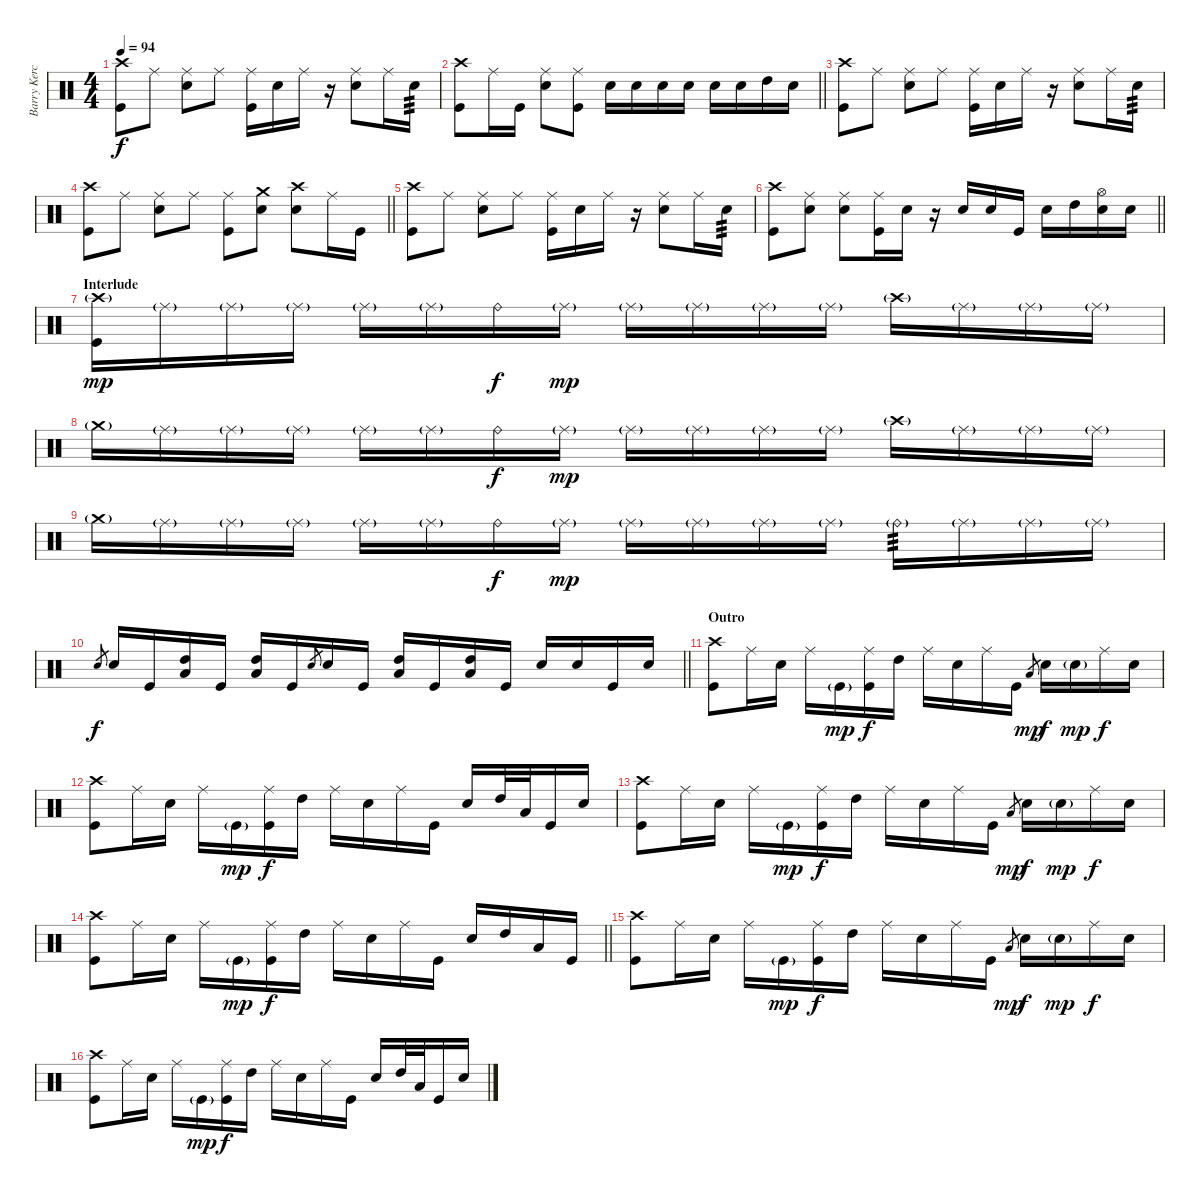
\track ("Barry Kerch" "Barry Kerc") {instrument percussion}
\staff {score}
\articulation defaults
\ts (4 4)
\tempo 94
\clef neutral
\ks c
("Crash high (hit)" "Kick (hit)").8{dy f} "Ride (middle)".8 ("Ride (middle)" "Snare (hit) 2").8 "Ride (middle)".8 ("Ride (middle)" "Kick (hit)").16 "Snare (hit) 2".16 "Ride (middle)".16 r.16 ("Ride (middle)" "Snare (hit) 2").8 "Ride (middle)".16 "Snare (hit) 2".16{tp 3} |
\barLineRight lightlight
("Crash high (hit)" "Kick (hit)").8 "Ride (middle)".16 "Kick (hit)".16 ("Ride (middle)" "Snare (hit) 2").8 ("Ride (middle)" "Kick (hit)").8 "Snare (hit) 2".16 "Snare (hit) 2".16 "Snare (hit) 2".16 "Snare (hit) 2".16 "Snare (hit) 2".16 "Snare (hit) 2".16 "High Tom (hit)".16 "Snare (hit) 2".16 |
("Crash high (hit)" "Kick (hit)").8 "Ride (middle)".8 ("Ride (middle)" "Snare (hit) 2").8 "Ride (middle)".8 ("Ride (middle)" "Kick (hit)").16 "Snare (hit) 2".16 "Ride (middle)".16 r.16 ("Ride (middle)" "Snare (hit) 2").8 "Ride (middle)".16 "Snare (hit) 2".16{tp 3} |
\barLineRight lightlight
("Crash high (hit)" "Kick (hit)").8 "Ride (middle)".8 ("Ride (middle)" "Snare (hit) 2").8 "Ride (middle)".8 ("Ride (middle)" "Kick (hit)").8 ("Crash medium (hit)" "Snare (hit) 2").8 ("Crash high (hit)" "Snare (hit) 2").8 "Ride (middle)".16 "Kick (hit)".16 |
("Crash high (hit)" "Kick (hit)").8 "Ride (middle)".8 ("Ride (middle)" "Snare (hit) 2").8 "Ride (middle)".8 ("Ride (middle)" "Kick (hit)").16 "Snare (hit) 2".16 "Ride (middle)".16 r.16 ("Ride (middle)" "Snare (hit) 2").8 "Ride (middle)".16 "Snare (hit) 2".16{tp 3} |
\barLineRight lightlight
("Crash high (hit)" "Kick (hit)").8 ("Ride (middle)" "Snare (hit) 2").8 ("Ride (middle)" "Snare (hit) 2").8 ("Ride (middle)" "Kick (hit)").16 "Snare (hit) 2".16 r.16 "Snare (hit) 2".16 "Snare (hit) 2".16 "Kick (hit)".16 "Snare (hit) 2".16 "High Tom (hit)".16 ("Hi-Hat (open)" "Snare (hit) 2").16 "Snare (hit) 2".16 |
\section ("" "Interlude")
("Crash high (hit)"{g} "Kick (hit)").16{dy mp} "Ride (middle)"{g}.16 "Ride (middle)"{g}.16 "Ride (middle)"{g}.16 "Ride (middle)"{g}.16 "Ride (middle)"{g}.16 "Ride (bell)".16{dy f} "Ride (middle)"{g}.16{dy mp} "Ride (middle)"{g}.16 "Ride (middle)"{g}.16 "Ride (middle)"{g}.16 "Ride (middle)"{g}.16 "Crash high (hit)"{g}.16 "Ride (middle)"{g}.16 "Ride (middle)"{g}.16 "Ride (middle)"{g}.16 |
"Crash medium (hit)"{g}.16 "Ride (middle)"{g}.16 "Ride (middle)"{g}.16 "Ride (middle)"{g}.16 "Ride (middle)"{g}.16 "Ride (middle)"{g}.16 "Ride (bell)".16{dy f} "Ride (middle)"{g}.16{dy mp} "Ride (middle)"{g}.16 "Ride (middle)"{g}.16 "Ride (middle)"{g}.16 "Ride (middle)"{g}.16 "Crash high (hit)"{g}.16 "Ride (middle)"{g}.16 "Ride (middle)"{g}.16 "Ride (middle)"{g}.16 |
"Crash medium (hit)"{g}.16 "Ride (middle)"{g}.16 "Ride (middle)"{g}.16 "Ride (middle)"{g}.16 "Ride (middle)"{g}.16 "Ride (middle)"{g}.16 "Ride (bell)".16{dy f} "Ride (middle)"{g}.16{dy mp} "Ride (middle)"{g}.16 "Ride (middle)"{g}.16 "Ride (middle)"{g}.16 "Ride (middle)"{g}.16 "Ride (bell)"{g}.16{tp 3} "Ride (middle)"{g}.16 "Ride (middle)"{g}.16 "Ride (middle)"{g}.16 |
\barLineRight lightlight "Snare (hit) 2".8{gr dy f} "Snare (hit) 2".16 "Kick (hit)".16
("High Tom (hit)" "Low Tom (hit)").16 "Kick (hit)".16 ("High Tom (hit)" "Low Tom (hit)").16 "Kick (hit)".16 "Snare (hit) 2".8{gr} "Snare (hit) 2".16 "Kick (hit)".16 ("High Tom (hit)" "Low Tom (hit)").16 "Kick (hit)".16 ("High Tom (hit)" "Low Tom (hit)").16 "Kick (hit)".16 "Snare (hit) 2".16 "Snare (hit) 2".16 "Kick (hit)".16 "Snare (hit) 2".16 |
\section ("" "Outro")
("Crash high (hit)" "Kick (hit)").8 "Ride (middle)".16 "Snare (hit) 2".16 "Ride (middle)".16 "Kick (hit)"{g}.16{dy mp} ("Ride (middle)" "Kick (hit)").16{dy f} "High Tom (hit)".16 "Ride (middle)".16 "Snare (hit) 2".16 "Ride (middle)".16 "Kick (hit)".16 "Low Tom (hit)".8{gr dy mp} "Snare (hit) 2".16{dy f} "Snare (hit) 2"{g}.16{dy mp} "Ride (middle)".16{dy f} "Snare (hit) 2".16 |
("Crash high (hit)" "Kick (hit)").8 "Ride (middle)".16 "Snare (hit) 2".16 "Ride (middle)".16 "Kick (hit)"{g}.16{dy mp} ("Ride (middle)" "Kick (hit)").16{dy f} "High Tom (hit)".16 "Ride (middle)".16 "Snare (hit) 2".16 "Ride (middle)".16 "Kick (hit)".16 "Snare (hit) 2".16 "High Tom (hit)".32 "Low Tom (hit)".32 "Kick (hit)".16 "Snare (hit) 2".16 |
("Crash high (hit)" "Kick (hit)").8 "Ride (middle)".16 "Snare (hit) 2".16 "Ride (middle)".16 "Kick (hit)"{g}.16{dy mp} ("Ride (middle)" "Kick (hit)").16{dy f} "High Tom (hit)".16 "Ride (middle)".16 "Snare (hit) 2".16 "Ride (middle)".16 "Kick (hit)".16 "Low Tom (hit)".8{gr dy mp} "Snare (hit) 2".16{dy f} "Snare (hit) 2"{g}.16{dy mp} "Ride (middle)".16{dy f} "Snare (hit) 2".16 |
\barLineRight lightlight
("Crash high (hit)" "Kick (hit)").8 "Ride (middle)".16 "Snare (hit) 2".16 "Ride (middle)".16 "Kick (hit)"{g}.16{dy mp} ("Ride (middle)" "Kick (hit)").16{dy f} "High Tom (hit)".16 "Ride (middle)".16 "Snare (hit) 2".16 "Ride (middle)".16 "Kick (hit)".16 "Snare (hit) 2".16 "High Tom (hit)".16 "Low Tom (hit)".16 "Kick (hit)".16 |
("Crash high (hit)" "Kick (hit)").8 "Ride (middle)".16 "Snare (hit) 2".16 "Ride (middle)".16 "Kick (hit)"{g}.16{dy mp} ("Ride (middle)" "Kick (hit)").16{dy f} "High Tom (hit)".16 "Ride (middle)".16 "Snare (hit) 2".16 "Ride (middle)".16 "Kick (hit)".16 "Low Tom (hit)".8{gr dy mp} "Snare (hit) 2".16{dy f} "Snare (hit) 2"{g}.16{dy mp} "Ride (middle)".16{dy f} "Snare (hit) 2".16 |
("Crash high (hit)" "Kick (hit)").8 "Ride (middle)".16 "Snare (hit) 2".16 "Ride (middle)".16 "Kick (hit)"{g}.16{dy mp} ("Ride (middle)" "Kick (hit)").16{dy f} "High Tom (hit)".16 "Ride (middle)".16 "Snare (hit) 2".16 "Ride (middle)".16 "Kick (hit)".16 "Snare (hit) 2".16 "High Tom (hit)".32 "Low Tom (hit)".32 "Kick (hit)".16 "Snare (hit) 2".16
